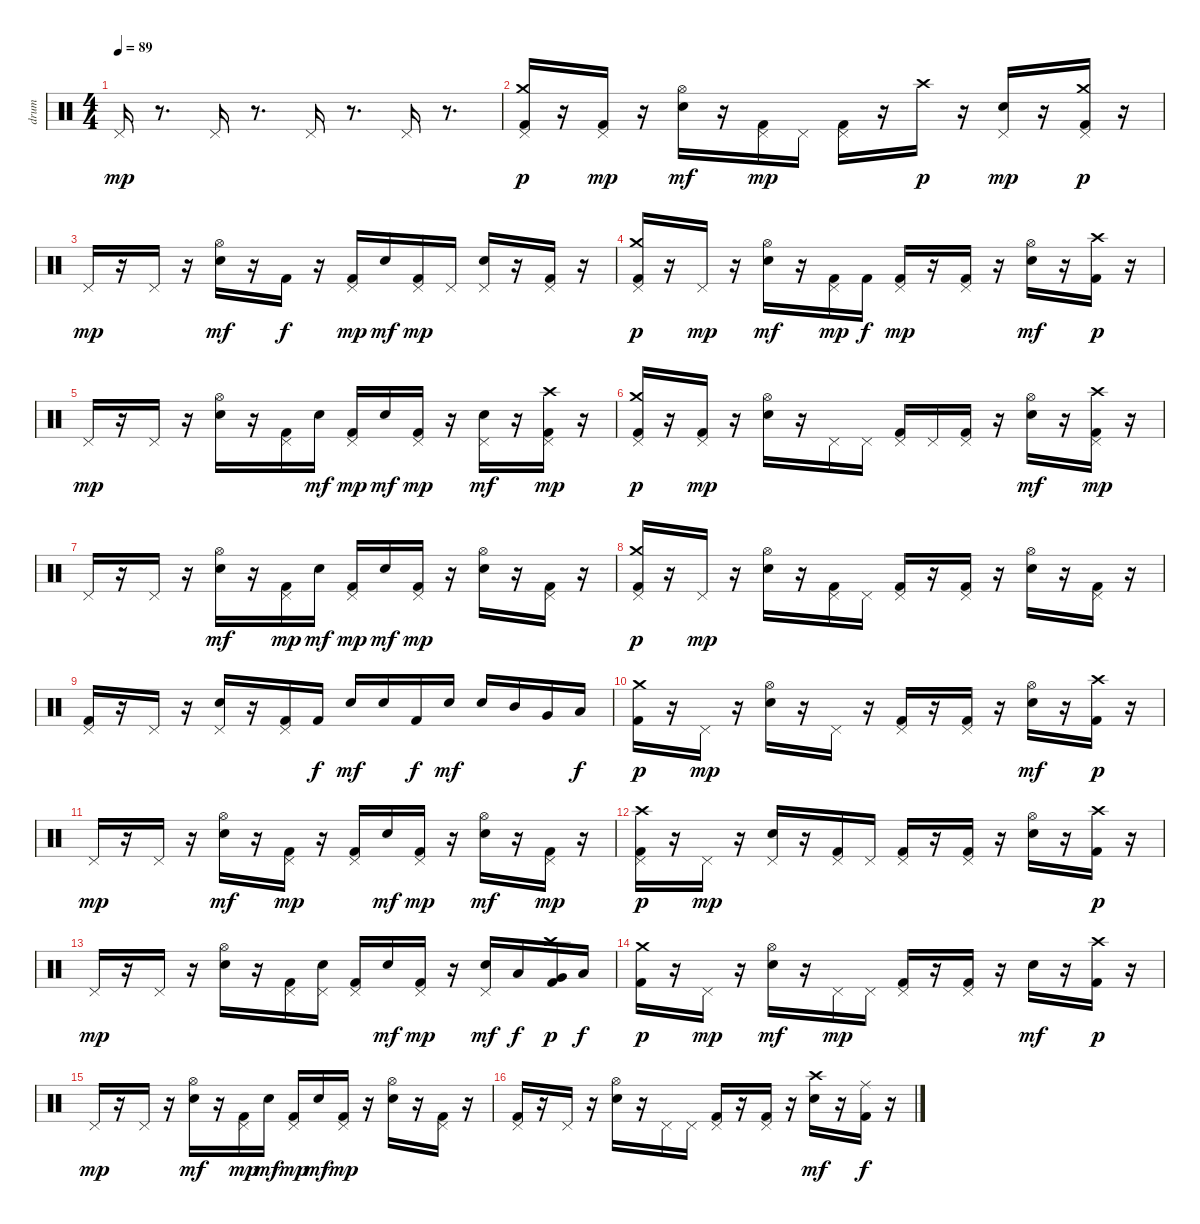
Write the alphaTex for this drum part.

\track ("drum" "drum") {instrument percussion}
\staff {score}
\articulation defaults
\ts (4 4)
\tempo 89
\clef neutral
\ks c "Pedal Hi-Hat (hit)".16{dy mp}
r.8{d} "Pedal Hi-Hat (hit)".16 r.8{d} "Pedal Hi-Hat (hit)".16 r.8{d} "Pedal Hi-Hat (hit)".16 r.8{d} |
("Pedal Hi-Hat (hit)" "Crash medium (hit)" "Kick (hit) 2").16{dy p} r.16 ("Pedal Hi-Hat (hit)" "Kick (hit) 2").16{dy mp} r.16 ("Hi-Hat (open)" "Electric Snare (hit)").16{dy mf} r.16 ("Kick (hit) 2" "Pedal Hi-Hat (hit)").16{dy mp} "Pedal Hi-Hat (hit)".16 ("Kick (hit) 2" "Pedal Hi-Hat (hit)").16 r.16 "Crash high (hit)".16{dy p} r.16 ("Electric Snare (hit)" "Pedal Hi-Hat (hit)").16{dy mp} r.16 ("Pedal Hi-Hat (hit)" "Kick (hit) 2" "Crash medium (hit)").16{dy p} r.16 |
"Pedal Hi-Hat (hit)".16{dy mp} r.16 "Pedal Hi-Hat (hit)".16 r.16 ("Hi-Hat (open)" "Electric Snare (hit)").16{dy mf} r.16 "Kick (hit) 2".16{dy f} r.16 ("Pedal Hi-Hat (hit)" "Kick (hit) 2").16{dy mp} "Electric Snare (hit)".16{dy mf} ("Kick (hit) 2" "Pedal Hi-Hat (hit)").16{dy mp} "Pedal Hi-Hat (hit)".16 ("Electric Snare (hit)" "Pedal Hi-Hat (hit)").16 r.16 ("Kick (hit) 2" "Pedal Hi-Hat (hit)").16 r.16 |
("Pedal Hi-Hat (hit)" "Crash medium (hit)" "Kick (hit) 2").16{dy p} r.16 "Pedal Hi-Hat (hit)".16{dy mp} r.16 ("Hi-Hat (open)" "Electric Snare (hit)").16{dy mf} r.16 ("Kick (hit) 2" "Pedal Hi-Hat (hit)").16{dy mp} "Kick (hit) 2".16{dy f} ("Kick (hit) 2" "Pedal Hi-Hat (hit)").16{dy mp} r.16 ("Kick (hit) 2" "Pedal Hi-Hat (hit)").16 r.16 ("Hi-Hat (open)" "Electric Snare (hit)").16{dy mf} r.16 ("Crash high (hit)" "Kick (hit) 2").16{dy p} r.16 |
"Pedal Hi-Hat (hit)".16{dy mp} r.16 "Pedal Hi-Hat (hit)".16 r.16 ("Electric Snare (hit)" "Hi-Hat (open)").16 r.16 ("Pedal Hi-Hat (hit)" "Kick (hit) 2").16 "Electric Snare (hit)".16{dy mf} ("Pedal Hi-Hat (hit)" "Kick (hit) 2").16{dy mp} "Electric Snare (hit)".16{dy mf} ("Kick (hit) 2" "Pedal Hi-Hat (hit)").16{dy mp} r.16 ("Pedal Hi-Hat (hit)" "Electric Snare (hit)").16{dy mf} r.16 ("Crash high (hit)" "Kick (hit) 2" "Pedal Hi-Hat (hit)").16{dy mp} r.16 |
("Pedal Hi-Hat (hit)" "Crash medium (hit)" "Kick (hit) 2").16{dy p} r.16 ("Kick (hit) 2" "Pedal Hi-Hat (hit)").16{dy mp} r.16 ("Electric Snare (hit)" "Hi-Hat (open)").16 r.16 "Pedal Hi-Hat (hit)".16 "Pedal Hi-Hat (hit)".16 ("Kick (hit) 2" "Pedal Hi-Hat (hit)").16 "Pedal Hi-Hat (hit)".16 ("Pedal Hi-Hat (hit)" "Kick (hit) 2").16 r.16 ("Hi-Hat (open)" "Electric Snare (hit)").16{dy mf} r.16 ("Crash high (hit)" "Kick (hit) 2" "Pedal Hi-Hat (hit)").16{dy mp} r.16 |
"Pedal Hi-Hat (hit)".16 r.16 "Pedal Hi-Hat (hit)".16 r.16 ("Hi-Hat (open)" "Electric Snare (hit)").16{dy mf} r.16 ("Pedal Hi-Hat (hit)" "Kick (hit) 2").16{dy mp} "Electric Snare (hit)".16{dy mf} ("Pedal Hi-Hat (hit)" "Kick (hit) 2").16{dy mp} "Electric Snare (hit)".16{dy mf} ("Kick (hit) 2" "Pedal Hi-Hat (hit)").16{dy mp} r.16 ("Electric Snare (hit)" "Hi-Hat (open)").16 r.16 ("Kick (hit) 2" "Pedal Hi-Hat (hit)").16 r.16 |
("Pedal Hi-Hat (hit)" "Crash medium (hit)" "Kick (hit) 2").16{dy p} r.16 "Pedal Hi-Hat (hit)".16{dy mp} r.16 ("Electric Snare (hit)" "Hi-Hat (open)").16 r.16 ("Kick (hit) 2" "Pedal Hi-Hat (hit)").16 "Pedal Hi-Hat (hit)".16 ("Kick (hit) 2" "Pedal Hi-Hat (hit)").16 r.16 ("Kick (hit) 2" "Pedal Hi-Hat (hit)").16 r.16 ("Electric Snare (hit)" "Hi-Hat (open)").16 r.16 ("Kick (hit) 2" "Pedal Hi-Hat (hit)").16 r.16 |
("Pedal Hi-Hat (hit)" "Kick (hit) 2").16 r.16 "Pedal Hi-Hat (hit)".16 r.16 ("Electric Snare (hit)" "Pedal Hi-Hat (hit)").16 r.16 ("Kick (hit) 2" "Pedal Hi-Hat (hit)").16 "Kick (hit) 2".16{dy f} "Electric Snare (hit)".16{dy mf} "Electric Snare (hit)".16 "Kick (hit) 2".16{dy f} "Electric Snare (hit)".16{dy mf} "Electric Snare (hit)".16 "Mid Tom (hit)".16 "Very Low Tom (hit)".16 "Low Tom (hit)".16{dy f} |
("Crash medium (hit)" "Kick (hit) 2").16{dy p} r.16 "Pedal Hi-Hat (hit)".16{dy mp} r.16 ("Electric Snare (hit)" "Hi-Hat (open)").16 r.16 "Pedal Hi-Hat (hit)".16 r.16 ("Kick (hit) 2" "Pedal Hi-Hat (hit)").16 r.16 ("Kick (hit) 2" "Pedal Hi-Hat (hit)").16 r.16 ("Hi-Hat (open)" "Electric Snare (hit)").16{dy mf} r.16 ("Crash high (hit)" "Kick (hit) 2").16{dy p} r.16 |
"Pedal Hi-Hat (hit)".16{dy mp} r.16 "Pedal Hi-Hat (hit)".16 r.16 ("Hi-Hat (open)" "Electric Snare (hit)").16{dy mf} r.16 ("Kick (hit) 2" "Pedal Hi-Hat (hit)").16{dy mp} r.16 ("Kick (hit) 2" "Pedal Hi-Hat (hit)").16 "Electric Snare (hit)".16{dy mf} ("Pedal Hi-Hat (hit)" "Kick (hit) 2").16{dy mp} r.16 ("Hi-Hat (open)" "Electric Snare (hit)").16{dy mf} r.16 ("Pedal Hi-Hat (hit)" "Kick (hit) 2").16{dy mp} r.16 |
("Pedal Hi-Hat (hit)" "Crash high (hit)" "Kick (hit) 2").16{dy p} r.16 "Pedal Hi-Hat (hit)".16{dy mp} r.16 ("Electric Snare (hit)" "Pedal Hi-Hat (hit)").16 r.16 ("Kick (hit) 2" "Pedal Hi-Hat (hit)").16 "Pedal Hi-Hat (hit)".16 ("Kick (hit) 2" "Pedal Hi-Hat (hit)").16 r.16 ("Kick (hit) 2" "Pedal Hi-Hat (hit)").16 r.16 ("Electric Snare (hit)" "Hi-Hat (open)").16 r.16 ("Kick (hit) 2" "Crash high (hit)").16{dy p} r.16 |
"Pedal Hi-Hat (hit)".16{dy mp} r.16 "Pedal Hi-Hat (hit)".16 r.16 ("Electric Snare (hit)" "Hi-Hat (open)").16 r.16 ("Kick (hit) 2" "Pedal Hi-Hat (hit)").16 ("Electric Snare (hit)" "Pedal Hi-Hat (hit)").16 ("Pedal Hi-Hat (hit)" "Kick (hit) 2").16 "Electric Snare (hit)".16{dy mf} ("Pedal Hi-Hat (hit)" "Kick (hit) 2").16{dy mp} r.16 ("Pedal Hi-Hat (hit)" "Electric Snare (hit)").16{dy mf} "Low Tom (hit)".16{dy f} ("Very Low Tom (hit)" "Crash high (hit)" "Kick (hit) 2").16{dy p} "Low Floor Tom (hit)".16{dy f} |
("Kick (hit) 2" "Crash medium (hit)").16{dy p} r.16 "Pedal Hi-Hat (hit)".16{dy mp} r.16 ("Hi-Hat (open)" "Electric Snare (hit)").16{dy mf} r.16 "Pedal Hi-Hat (hit)".16{dy mp} "Pedal Hi-Hat (hit)".16 ("Pedal Hi-Hat (hit)" "Kick (hit) 2").16 r.16 ("Pedal Hi-Hat (hit)" "Kick (hit) 2").16 r.16 "Electric Snare (hit)".16{dy mf} r.16 ("Crash high (hit)" "Kick (hit) 2").16{dy p} r.16 |
"Pedal Hi-Hat (hit)".16{dy mp} r.16 "Pedal Hi-Hat (hit)".16 r.16 ("Hi-Hat (open)" "Electric Snare (hit)").16{dy mf} r.16 ("Kick (hit) 2" "Pedal Hi-Hat (hit)").16{dy mp} "Electric Snare (hit)".16{dy mf} ("Pedal Hi-Hat (hit)" "Kick (hit) 2").16{dy mp} "Electric Snare (hit)".16{dy mf} ("Pedal Hi-Hat (hit)" "Kick (hit) 2").16{dy mp} r.16 ("Electric Snare (hit)" "Hi-Hat (open)").16 r.16 ("Kick (hit) 2" "Pedal Hi-Hat (hit)").16 r.16 |
("Pedal Hi-Hat (hit)" "Kick (hit) 2").16 r.16 "Pedal Hi-Hat (hit)".16 r.16 ("Electric Snare (hit)" "Hi-Hat (open)").16 r.16 "Pedal Hi-Hat (hit)".16 "Pedal Hi-Hat (hit)".16 ("Kick (hit) 2" "Pedal Hi-Hat (hit)").16 r.16 ("Kick (hit) 2" "Pedal Hi-Hat (hit)").16 r.16 ("Crash high (hit)" "Electric Snare (hit)").16{dy mf} r.16 ("Ride (middle)" "Kick (hit) 2").16{dy f} r.16
